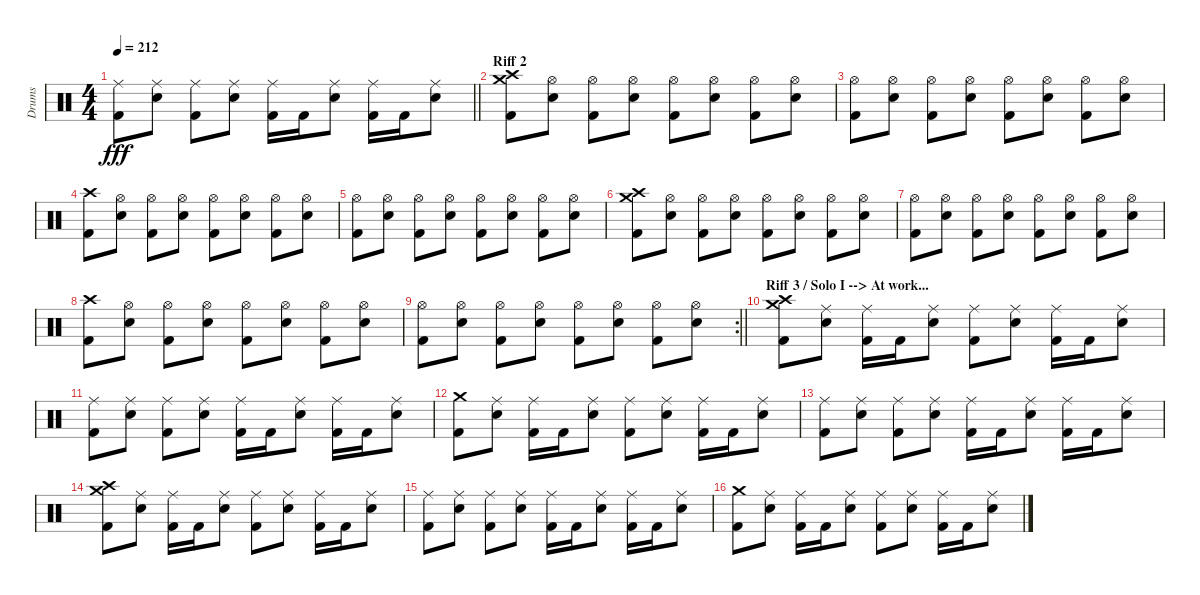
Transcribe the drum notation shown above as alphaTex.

\track ("Drums" "Drums") {instrument percussion}
\staff {score}
\articulation defaults
\ts (4 4)
\tempo 212
\clef neutral
\barLineRight lightlight
\ks c
("Ride (middle)" "Kick (hit) 2").8{dy fff} ("Ride (middle)" "Electric Snare (hit)").8 ("Ride (middle)" "Kick (hit) 2").8 ("Ride (middle)" "Electric Snare (hit)").8 ("Ride (middle)" "Kick (hit) 2").16 "Kick (hit) 2".16 ("Ride (middle)" "Electric Snare (hit)").8 ("Ride (middle)" "Kick (hit) 2").16 "Kick (hit) 2".16 ("Ride (middle)" "Electric Snare (hit)").8 |
\section ("" "Riff 2")
("Crash high (hit)" "Crash medium (hit)" "Kick (hit) 2").8 ("Hi-Hat (open)" "Snare (hit) 2").8 ("Hi-Hat (open)" "Kick (hit) 2").8 ("Hi-Hat (open)" "Snare (hit) 2").8 ("Hi-Hat (open)" "Kick (hit) 2").8 ("Hi-Hat (open)" "Snare (hit) 2").8 ("Hi-Hat (open)" "Kick (hit) 2").8 ("Hi-Hat (open)" "Snare (hit) 2").8 |
("Hi-Hat (open)" "Kick (hit) 2").8 ("Hi-Hat (open)" "Snare (hit) 2").8 ("Hi-Hat (open)" "Kick (hit) 2").8 ("Hi-Hat (open)" "Snare (hit) 2").8 ("Hi-Hat (open)" "Kick (hit) 2").8 ("Hi-Hat (open)" "Snare (hit) 2").8 ("Hi-Hat (open)" "Kick (hit) 2").8 ("Hi-Hat (open)" "Snare (hit) 2").8 |
("Crash high (hit)" "Kick (hit) 2").8 ("Hi-Hat (open)" "Snare (hit) 2").8 ("Hi-Hat (open)" "Kick (hit) 2").8 ("Hi-Hat (open)" "Snare (hit) 2").8 ("Hi-Hat (open)" "Kick (hit) 2").8 ("Hi-Hat (open)" "Snare (hit) 2").8 ("Hi-Hat (open)" "Kick (hit) 2").8 ("Hi-Hat (open)" "Snare (hit) 2").8 |
("Hi-Hat (open)" "Kick (hit) 2").8 ("Hi-Hat (open)" "Snare (hit) 2").8 ("Hi-Hat (open)" "Kick (hit) 2").8 ("Hi-Hat (open)" "Snare (hit) 2").8 ("Hi-Hat (open)" "Kick (hit) 2").8 ("Hi-Hat (open)" "Snare (hit) 2").8 ("Hi-Hat (open)" "Kick (hit) 2").8 ("Hi-Hat (open)" "Snare (hit) 2").8 |
("Crash high (hit)" "Crash medium (hit)" "Kick (hit) 2").8 ("Hi-Hat (open)" "Snare (hit) 2").8 ("Hi-Hat (open)" "Kick (hit) 2").8 ("Hi-Hat (open)" "Snare (hit) 2").8 ("Hi-Hat (open)" "Kick (hit) 2").8 ("Hi-Hat (open)" "Snare (hit) 2").8 ("Hi-Hat (open)" "Kick (hit) 2").8 ("Hi-Hat (open)" "Snare (hit) 2").8 |
("Hi-Hat (open)" "Kick (hit) 2").8 ("Hi-Hat (open)" "Snare (hit) 2").8 ("Hi-Hat (open)" "Kick (hit) 2").8 ("Hi-Hat (open)" "Snare (hit) 2").8 ("Hi-Hat (open)" "Kick (hit) 2").8 ("Hi-Hat (open)" "Snare (hit) 2").8 ("Hi-Hat (open)" "Kick (hit) 2").8 ("Hi-Hat (open)" "Snare (hit) 2").8 |
("Crash high (hit)" "Kick (hit) 2").8 ("Hi-Hat (open)" "Snare (hit) 2").8 ("Hi-Hat (open)" "Kick (hit) 2").8 ("Hi-Hat (open)" "Snare (hit) 2").8 ("Hi-Hat (open)" "Kick (hit) 2").8 ("Hi-Hat (open)" "Snare (hit) 2").8 ("Hi-Hat (open)" "Kick (hit) 2").8 ("Hi-Hat (open)" "Snare (hit) 2").8 |
\rc 2
\barLineRight lightlight
("Hi-Hat (open)" "Kick (hit) 2").8 ("Hi-Hat (open)" "Snare (hit) 2").8 ("Hi-Hat (open)" "Kick (hit) 2").8 ("Hi-Hat (open)" "Snare (hit) 2").8 ("Hi-Hat (open)" "Kick (hit) 2").8 ("Hi-Hat (open)" "Snare (hit) 2").8 ("Hi-Hat (open)" "Kick (hit) 2").8 ("Hi-Hat (open)" "Snare (hit) 2").8 |
\section ("" "Riff 3 / Solo I --> At work...")
("Crash high (hit)" "Crash medium (hit)" "Kick (hit) 2").8 ("Ride (middle)" "Electric Snare (hit)").8 ("Ride (middle)" "Kick (hit) 2").16 "Kick (hit) 2".16 ("Ride (middle)" "Electric Snare (hit)").8 ("Ride (middle)" "Kick (hit) 2").8 ("Ride (middle)" "Electric Snare (hit)").8 ("Ride (middle)" "Kick (hit) 2").16 "Kick (hit) 2".16 ("Ride (middle)" "Electric Snare (hit)").8 |
("Ride (middle)" "Kick (hit) 2").8 ("Ride (middle)" "Electric Snare (hit)").8 ("Ride (middle)" "Kick (hit) 2").8 ("Ride (middle)" "Electric Snare (hit)").8 ("Ride (middle)" "Kick (hit) 2").16 "Kick (hit) 2".16 ("Ride (middle)" "Electric Snare (hit)").8 ("Ride (middle)" "Kick (hit) 2").16 "Kick (hit) 2".16 ("Ride (middle)" "Electric Snare (hit)").8 |
("Crash medium (hit)" "Kick (hit) 2").8 ("Ride (middle)" "Electric Snare (hit)").8 ("Ride (middle)" "Kick (hit) 2").16 "Kick (hit) 2".16 ("Ride (middle)" "Electric Snare (hit)").8 ("Ride (middle)" "Kick (hit) 2").8 ("Ride (middle)" "Electric Snare (hit)").8 ("Ride (middle)" "Kick (hit) 2").16 "Kick (hit) 2".16 ("Ride (middle)" "Electric Snare (hit)").8 |
("Ride (middle)" "Kick (hit) 2").8 ("Ride (middle)" "Electric Snare (hit)").8 ("Ride (middle)" "Kick (hit) 2").8 ("Ride (middle)" "Electric Snare (hit)").8 ("Ride (middle)" "Kick (hit) 2").16 "Kick (hit) 2".16 ("Ride (middle)" "Electric Snare (hit)").8 ("Ride (middle)" "Kick (hit) 2").16 "Kick (hit) 2".16 ("Ride (middle)" "Electric Snare (hit)").8 |
("Crash high (hit)" "Crash medium (hit)" "Kick (hit) 2").8 ("Ride (middle)" "Electric Snare (hit)").8 ("Ride (middle)" "Kick (hit) 2").16 "Kick (hit) 2".16 ("Ride (middle)" "Electric Snare (hit)").8 ("Ride (middle)" "Kick (hit) 2").8 ("Ride (middle)" "Electric Snare (hit)").8 ("Ride (middle)" "Kick (hit) 2").16 "Kick (hit) 2".16 ("Ride (middle)" "Electric Snare (hit)").8 |
("Ride (middle)" "Kick (hit) 2").8 ("Ride (middle)" "Electric Snare (hit)").8 ("Ride (middle)" "Kick (hit) 2").8 ("Ride (middle)" "Electric Snare (hit)").8 ("Ride (middle)" "Kick (hit) 2").16 "Kick (hit) 2".16 ("Ride (middle)" "Electric Snare (hit)").8 ("Ride (middle)" "Kick (hit) 2").16 "Kick (hit) 2".16 ("Ride (middle)" "Electric Snare (hit)").8 |
("Crash medium (hit)" "Kick (hit) 2").8 ("Ride (middle)" "Electric Snare (hit)").8 ("Ride (middle)" "Kick (hit) 2").16 "Kick (hit) 2".16 ("Ride (middle)" "Electric Snare (hit)").8 ("Ride (middle)" "Kick (hit) 2").8 ("Ride (middle)" "Electric Snare (hit)").8 ("Ride (middle)" "Kick (hit) 2").16 "Kick (hit) 2".16 ("Ride (middle)" "Electric Snare (hit)").8
